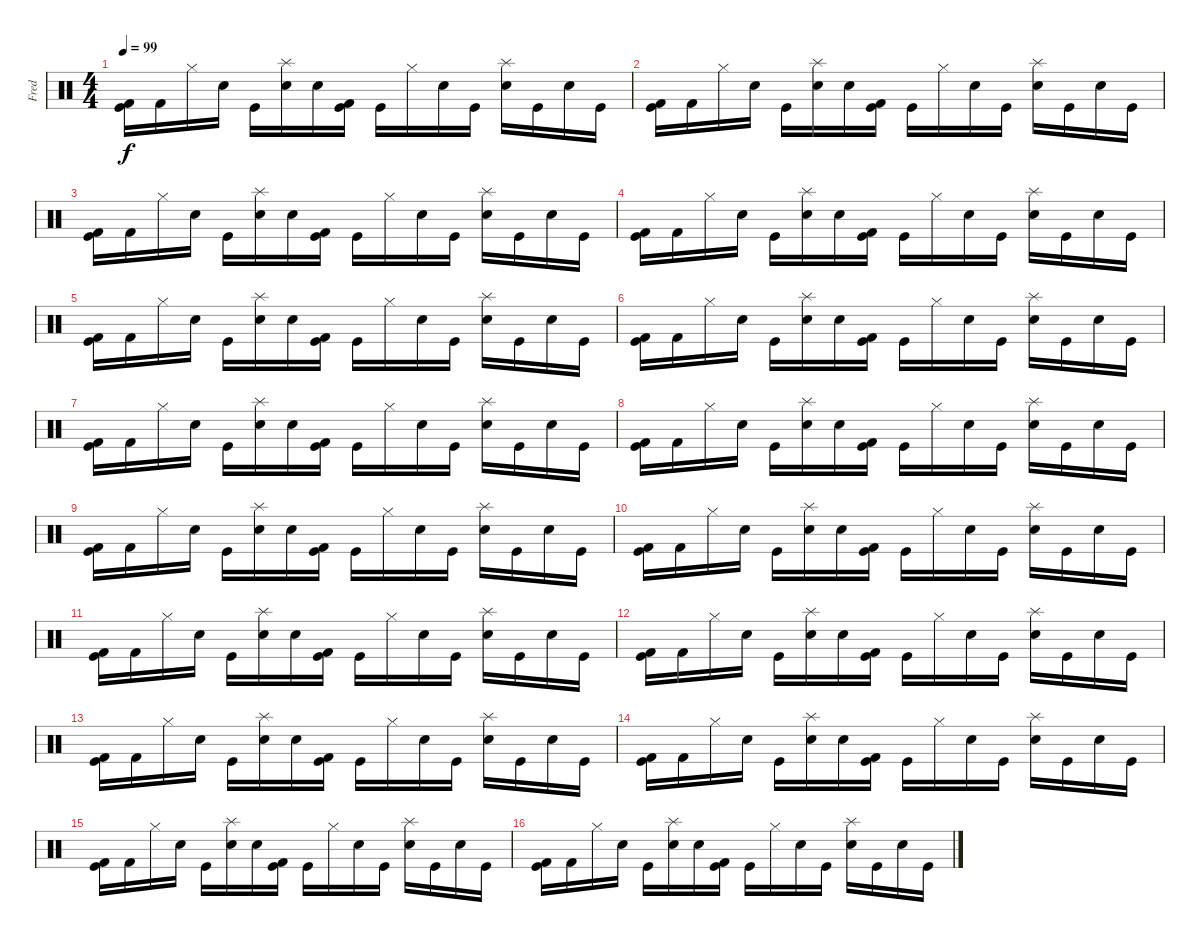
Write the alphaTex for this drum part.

\track ("Fred" "Fred") {instrument percussion}
\staff {score}
\articulation defaults
\ts (4 4)
\tempo 99
\clef neutral
\ks c
("Kick (hit) 2" "Kick (hit)").16{dy f} "Kick (hit) 2".16 "Hi-Hat (closed)".16 "Snare (hit)".16 "Kick (hit)".16 ("Snare (hit) 2" "Splash (hit)").16 "Snare (hit)".16 ("Kick (hit) 2" "Kick (hit)").16 "Kick (hit)".16 "Hi-Hat (closed)".16 "Snare (hit)".16 "Kick (hit)".16 ("Snare (hit) 2" "Splash (hit)").16 "Kick (hit)".16 "Snare (hit)".16 "Kick (hit)".16 |
("Kick (hit) 2" "Kick (hit)").16 "Kick (hit) 2".16 "Hi-Hat (closed)".16 "Snare (hit)".16 "Kick (hit)".16 ("Snare (hit) 2" "Splash (hit)").16 "Snare (hit)".16 ("Kick (hit) 2" "Kick (hit)").16 "Kick (hit)".16 "Hi-Hat (closed)".16 "Snare (hit)".16 "Kick (hit)".16 ("Snare (hit) 2" "Splash (hit)").16 "Kick (hit)".16 "Snare (hit)".16 "Kick (hit)".16 |
("Kick (hit) 2" "Kick (hit)").16 "Kick (hit) 2".16 "Hi-Hat (closed)".16 "Snare (hit)".16 "Kick (hit)".16 ("Snare (hit) 2" "Splash (hit)").16 "Snare (hit)".16 ("Kick (hit) 2" "Kick (hit)").16 "Kick (hit)".16 "Hi-Hat (closed)".16 "Snare (hit)".16 "Kick (hit)".16 ("Snare (hit) 2" "Splash (hit)").16 "Kick (hit)".16 "Snare (hit)".16 "Kick (hit)".16 |
("Kick (hit) 2" "Kick (hit)").16 "Kick (hit) 2".16 "Hi-Hat (closed)".16 "Snare (hit)".16 "Kick (hit)".16 ("Snare (hit) 2" "Splash (hit)").16 "Snare (hit)".16 ("Kick (hit) 2" "Kick (hit)").16 "Kick (hit)".16 "Hi-Hat (closed)".16 "Snare (hit)".16 "Kick (hit)".16 ("Snare (hit) 2" "Splash (hit)").16 "Kick (hit)".16 "Snare (hit)".16 "Kick (hit)".16 |
("Kick (hit) 2" "Kick (hit)").16 "Kick (hit) 2".16 "Hi-Hat (closed)".16 "Snare (hit)".16 "Kick (hit)".16 ("Snare (hit) 2" "Splash (hit)").16 "Snare (hit)".16 ("Kick (hit) 2" "Kick (hit)").16 "Kick (hit)".16 "Hi-Hat (closed)".16 "Snare (hit)".16 "Kick (hit)".16 ("Snare (hit) 2" "Splash (hit)").16 "Kick (hit)".16 "Snare (hit)".16 "Kick (hit)".16 |
("Kick (hit) 2" "Kick (hit)").16 "Kick (hit) 2".16 "Hi-Hat (closed)".16 "Snare (hit)".16 "Kick (hit)".16 ("Snare (hit) 2" "Splash (hit)").16 "Snare (hit)".16 ("Kick (hit) 2" "Kick (hit)").16 "Kick (hit)".16 "Hi-Hat (closed)".16 "Snare (hit)".16 "Kick (hit)".16 ("Snare (hit) 2" "Splash (hit)").16 "Kick (hit)".16 "Snare (hit)".16 "Kick (hit)".16 |
("Kick (hit) 2" "Kick (hit)").16 "Kick (hit) 2".16 "Hi-Hat (closed)".16 "Snare (hit)".16 "Kick (hit)".16 ("Snare (hit) 2" "Splash (hit)").16 "Snare (hit)".16 ("Kick (hit) 2" "Kick (hit)").16 "Kick (hit)".16 "Hi-Hat (closed)".16 "Snare (hit)".16 "Kick (hit)".16 ("Snare (hit) 2" "Splash (hit)").16 "Kick (hit)".16 "Snare (hit)".16 "Kick (hit)".16 |
("Kick (hit) 2" "Kick (hit)").16 "Kick (hit) 2".16 "Hi-Hat (closed)".16 "Snare (hit)".16 "Kick (hit)".16 ("Snare (hit) 2" "Splash (hit)").16 "Snare (hit)".16 ("Kick (hit) 2" "Kick (hit)").16 "Kick (hit)".16 "Hi-Hat (closed)".16 "Snare (hit)".16 "Kick (hit)".16 ("Snare (hit) 2" "Splash (hit)").16 "Kick (hit)".16 "Snare (hit)".16 "Kick (hit)".16 |
("Kick (hit) 2" "Kick (hit)").16 "Kick (hit) 2".16 "Hi-Hat (closed)".16 "Snare (hit)".16 "Kick (hit)".16 ("Snare (hit) 2" "Splash (hit)").16 "Snare (hit)".16 ("Kick (hit) 2" "Kick (hit)").16 "Kick (hit)".16 "Hi-Hat (closed)".16 "Snare (hit)".16 "Kick (hit)".16 ("Snare (hit) 2" "Splash (hit)").16 "Kick (hit)".16 "Snare (hit)".16 "Kick (hit)".16 |
("Kick (hit) 2" "Kick (hit)").16 "Kick (hit) 2".16 "Hi-Hat (closed)".16 "Snare (hit)".16 "Kick (hit)".16 ("Snare (hit) 2" "Splash (hit)").16 "Snare (hit)".16 ("Kick (hit) 2" "Kick (hit)").16 "Kick (hit)".16 "Hi-Hat (closed)".16 "Snare (hit)".16 "Kick (hit)".16 ("Snare (hit) 2" "Splash (hit)").16 "Kick (hit)".16 "Snare (hit)".16 "Kick (hit)".16 |
("Kick (hit) 2" "Kick (hit)").16 "Kick (hit) 2".16 "Hi-Hat (closed)".16 "Snare (hit)".16 "Kick (hit)".16 ("Snare (hit) 2" "Splash (hit)").16 "Snare (hit)".16 ("Kick (hit) 2" "Kick (hit)").16 "Kick (hit)".16 "Hi-Hat (closed)".16 "Snare (hit)".16 "Kick (hit)".16 ("Snare (hit) 2" "Splash (hit)").16 "Kick (hit)".16 "Snare (hit)".16 "Kick (hit)".16 |
("Kick (hit) 2" "Kick (hit)").16 "Kick (hit) 2".16 "Hi-Hat (closed)".16 "Snare (hit)".16 "Kick (hit)".16 ("Snare (hit) 2" "Splash (hit)").16 "Snare (hit)".16 ("Kick (hit) 2" "Kick (hit)").16 "Kick (hit)".16 "Hi-Hat (closed)".16 "Snare (hit)".16 "Kick (hit)".16 ("Snare (hit) 2" "Splash (hit)").16 "Kick (hit)".16 "Snare (hit)".16 "Kick (hit)".16 |
("Kick (hit) 2" "Kick (hit)").16 "Kick (hit) 2".16 "Hi-Hat (closed)".16 "Snare (hit)".16 "Kick (hit)".16 ("Snare (hit) 2" "Splash (hit)").16 "Snare (hit)".16 ("Kick (hit) 2" "Kick (hit)").16 "Kick (hit)".16 "Hi-Hat (closed)".16 "Snare (hit)".16 "Kick (hit)".16 ("Snare (hit) 2" "Splash (hit)").16 "Kick (hit)".16 "Snare (hit)".16 "Kick (hit)".16 |
("Kick (hit) 2" "Kick (hit)").16 "Kick (hit) 2".16 "Hi-Hat (closed)".16 "Snare (hit)".16 "Kick (hit)".16 ("Snare (hit) 2" "Splash (hit)").16 "Snare (hit)".16 ("Kick (hit) 2" "Kick (hit)").16 "Kick (hit)".16 "Hi-Hat (closed)".16 "Snare (hit)".16 "Kick (hit)".16 ("Snare (hit) 2" "Splash (hit)").16 "Kick (hit)".16 "Snare (hit)".16 "Kick (hit)".16 |
("Kick (hit) 2" "Kick (hit)").16 "Kick (hit) 2".16 "Hi-Hat (closed)".16 "Snare (hit)".16 "Kick (hit)".16 ("Snare (hit) 2" "Splash (hit)").16 "Snare (hit)".16 ("Kick (hit) 2" "Kick (hit)").16 "Kick (hit)".16 "Hi-Hat (closed)".16 "Snare (hit)".16 "Kick (hit)".16 ("Snare (hit) 2" "Splash (hit)").16 "Kick (hit)".16 "Snare (hit)".16 "Kick (hit)".16 |
("Kick (hit) 2" "Kick (hit)").16 "Kick (hit) 2".16 "Hi-Hat (closed)".16 "Snare (hit)".16 "Kick (hit)".16 ("Snare (hit) 2" "Splash (hit)").16 "Snare (hit)".16 ("Kick (hit) 2" "Kick (hit)").16 "Kick (hit)".16 "Hi-Hat (closed)".16 "Snare (hit)".16 "Kick (hit)".16 ("Snare (hit) 2" "Splash (hit)").16 "Kick (hit)".16 "Snare (hit)".16 "Kick (hit)".16
